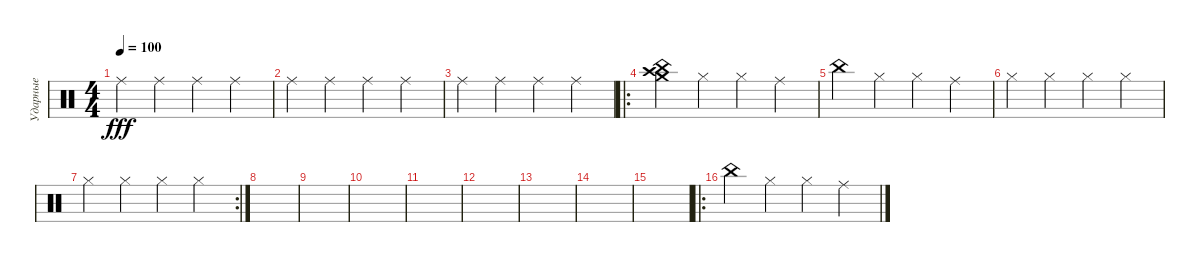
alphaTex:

\track ("Ударные" "Ударные") {instrument percussion}
\staff {score}
\articulation defaults
\ts (4 4)
\tempo 100
\clef neutral
\ks c "Ride (middle)".4{dy fff} "Ride (middle)".4 "Ride (middle)".4 "Ride (middle)".4
|
"Ride (middle)".4 "Ride (middle)".4 "Ride (middle)".4 "Ride (middle)".4 |
"Ride (middle)".4 "Ride (middle)".4 "Ride (middle)".4 "Ride (middle)".4 |
\ro
("Crash medium (hit)" "China (hit)" "Crash high (hit)").4 "Hi-Hat (closed)".4 "Hi-Hat (closed)".4 "Ride (middle)".4 |
"China (hit)".4 "Hi-Hat (closed)".4 "Hi-Hat (closed)".4 "Ride (middle)".4 |
"Hi-Hat (closed)".4 "Hi-Hat (closed)".4 "Hi-Hat (closed)".4 "Hi-Hat (closed)".4 |
\rc 2 "Hi-Hat (closed)".4 "Hi-Hat (closed)".4 "Hi-Hat (closed)".4 "Hi-Hat (closed)".4
|
|
|
|
|
|
|
|
|
\ro "China (hit)".4 "Hi-Hat (closed)".4 "Hi-Hat (closed)".4 "Ride (middle)".4
